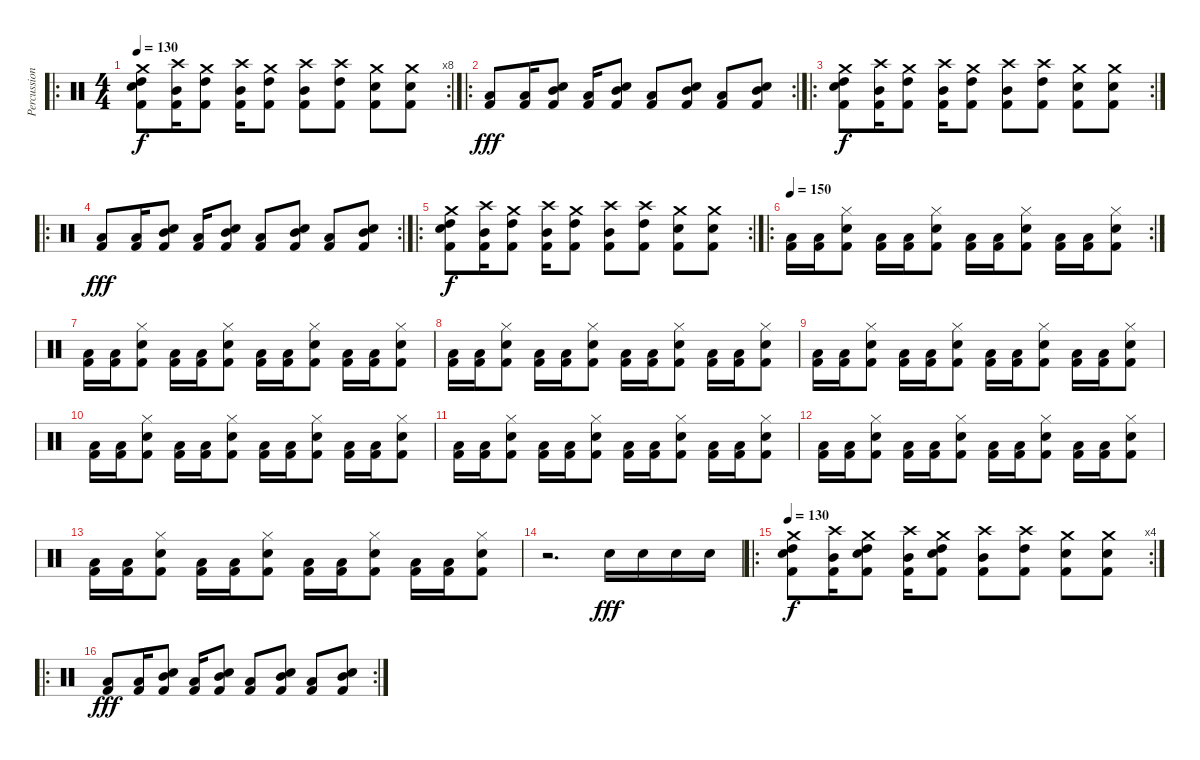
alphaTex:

\track ("Percussion" "Percussion") {instrument percussion}
\staff {score}
\articulation defaults
\ro
\rc 8
\ts (4 4)
\tempo 130
\clef neutral
\ks c
("Crash medium (hit)" "Snare (hit) 2" "Kick (hit) 2" "High Tom (hit)").8{dy f} ("Crash high (hit)" "Kick (hit) 2" "Mid Tom (hit)").16 ("Crash medium (hit)" "Kick (hit) 2" "High Tom (hit)").8 ("Crash high (hit)" "Kick (hit) 2" "Mid Tom (hit)").16 ("Crash medium (hit)" "Kick (hit) 2" "High Tom (hit)").8 ("Crash high (hit)" "Kick (hit) 2" "Mid Tom (hit)").8 ("Crash high (hit)" "Kick (hit) 2" "High Tom (hit)").8 ("Crash medium (hit)" "Snare (hit) 2" "Kick (hit) 2").8 ("Crash medium (hit)" "Snare (hit) 2" "Kick (hit) 2").8 |
\ro
\rc 2
("Kick (hit) 2" "Low Tom (hit)").8{dy fff volume 16} ("Kick (hit) 2" "Low Tom (hit)").16 ("Snare (hit) 2" "Kick (hit) 2" "Mid Tom (hit)").8 ("Kick (hit) 2" "Low Tom (hit)").16 ("Snare (hit) 2" "Kick (hit) 2" "Mid Tom (hit)").8 ("Kick (hit) 2" "Low Tom (hit)").8 ("Snare (hit) 2" "Kick (hit) 2" "Mid Tom (hit)").8 ("Kick (hit) 2" "Low Tom (hit)").8 ("Snare (hit) 2" "Kick (hit) 2" "Mid Tom (hit)").8 |
\ro
\rc 2
("Crash medium (hit)" "Snare (hit) 2" "Kick (hit) 2" "High Tom (hit)").8{dy f volume 10} ("Crash high (hit)" "Kick (hit) 2" "Mid Tom (hit)").16 ("Crash medium (hit)" "Kick (hit) 2" "High Tom (hit)").8 ("Crash high (hit)" "Kick (hit) 2" "Mid Tom (hit)").16 ("Crash medium (hit)" "Kick (hit) 2" "High Tom (hit)").8 ("Crash high (hit)" "Kick (hit) 2" "Mid Tom (hit)").8 ("Crash high (hit)" "Kick (hit) 2" "High Tom (hit)").8 ("Crash medium (hit)" "Snare (hit) 2" "Kick (hit) 2").8 ("Crash medium (hit)" "Snare (hit) 2" "Kick (hit) 2").8 |
\ro
\rc 2
("Kick (hit) 2" "Low Tom (hit)").8{dy fff volume 16} ("Kick (hit) 2" "Low Tom (hit)").16 ("Snare (hit) 2" "Kick (hit) 2" "Mid Tom (hit)").8 ("Kick (hit) 2" "Low Tom (hit)").16 ("Snare (hit) 2" "Kick (hit) 2" "Mid Tom (hit)").8 ("Kick (hit) 2" "Low Tom (hit)").8 ("Snare (hit) 2" "Kick (hit) 2" "Mid Tom (hit)").8 ("Kick (hit) 2" "Low Tom (hit)").8 ("Snare (hit) 2" "Kick (hit) 2" "Mid Tom (hit)").8 |
\ro
\rc 2
("Crash medium (hit)" "Snare (hit) 2" "Kick (hit) 2" "High Tom (hit)").8{dy f volume 10} ("Crash high (hit)" "Kick (hit) 2" "Mid Tom (hit)").16 ("Crash medium (hit)" "Kick (hit) 2" "High Tom (hit)").8 ("Crash high (hit)" "Kick (hit) 2" "Mid Tom (hit)").16 ("Crash medium (hit)" "Kick (hit) 2" "High Tom (hit)").8 ("Crash high (hit)" "Kick (hit) 2" "Mid Tom (hit)").8 ("Crash high (hit)" "Kick (hit) 2" "High Tom (hit)").8 ("Crash medium (hit)" "Snare (hit) 2" "Kick (hit) 2").8 ("Crash medium (hit)" "Snare (hit) 2" "Kick (hit) 2").8 |
\ro
\rc 2
\tempo 150
("Kick (hit) 2" "Low Tom (hit)").16{volume 13} ("Kick (hit) 2" "Low Tom (hit)").16 ("Hi-Hat (closed)" "Snare (hit) 2" "Kick (hit) 2").8 ("Kick (hit) 2" "Low Tom (hit)").16 ("Kick (hit) 2" "Low Tom (hit)").16 ("Hi-Hat (closed)" "Snare (hit) 2" "Kick (hit) 2").8 ("Kick (hit) 2" "Low Tom (hit)").16 ("Kick (hit) 2" "Low Tom (hit)").16 ("Hi-Hat (closed)" "Snare (hit) 2" "Kick (hit) 2").8 ("Kick (hit) 2" "Low Tom (hit)").16 ("Kick (hit) 2" "Low Tom (hit)").16 ("Hi-Hat (closed)" "Snare (hit) 2" "Kick (hit) 2").8 |
("Kick (hit) 2" "Low Tom (hit)").16{volume 13} ("Kick (hit) 2" "Low Tom (hit)").16 ("Hi-Hat (closed)" "Snare (hit) 2" "Kick (hit) 2").8 ("Kick (hit) 2" "Low Tom (hit)").16 ("Kick (hit) 2" "Low Tom (hit)").16 ("Hi-Hat (closed)" "Snare (hit) 2" "Kick (hit) 2").8 ("Kick (hit) 2" "Low Tom (hit)").16 ("Kick (hit) 2" "Low Tom (hit)").16 ("Hi-Hat (closed)" "Snare (hit) 2" "Kick (hit) 2").8 ("Kick (hit) 2" "Low Tom (hit)").16 ("Kick (hit) 2" "Low Tom (hit)").16 ("Hi-Hat (closed)" "Snare (hit) 2" "Kick (hit) 2").8 |
("Kick (hit) 2" "Low Tom (hit)").16{volume 13} ("Kick (hit) 2" "Low Tom (hit)").16 ("Hi-Hat (closed)" "Snare (hit) 2" "Kick (hit) 2").8 ("Kick (hit) 2" "Low Tom (hit)").16 ("Kick (hit) 2" "Low Tom (hit)").16 ("Hi-Hat (closed)" "Snare (hit) 2" "Kick (hit) 2").8 ("Kick (hit) 2" "Low Tom (hit)").16 ("Kick (hit) 2" "Low Tom (hit)").16 ("Hi-Hat (closed)" "Snare (hit) 2" "Kick (hit) 2").8 ("Kick (hit) 2" "Low Tom (hit)").16 ("Kick (hit) 2" "Low Tom (hit)").16 ("Hi-Hat (closed)" "Snare (hit) 2" "Kick (hit) 2").8 |
("Kick (hit) 2" "Low Tom (hit)").16{volume 13} ("Kick (hit) 2" "Low Tom (hit)").16 ("Hi-Hat (closed)" "Snare (hit) 2" "Kick (hit) 2").8 ("Kick (hit) 2" "Low Tom (hit)").16 ("Kick (hit) 2" "Low Tom (hit)").16 ("Hi-Hat (closed)" "Snare (hit) 2" "Kick (hit) 2").8 ("Kick (hit) 2" "Low Tom (hit)").16 ("Kick (hit) 2" "Low Tom (hit)").16 ("Hi-Hat (closed)" "Snare (hit) 2" "Kick (hit) 2").8 ("Kick (hit) 2" "Low Tom (hit)").16 ("Kick (hit) 2" "Low Tom (hit)").16 ("Hi-Hat (closed)" "Snare (hit) 2" "Kick (hit) 2").8 |
("Kick (hit) 2" "Low Tom (hit)").16{volume 13} ("Kick (hit) 2" "Low Tom (hit)").16 ("Hi-Hat (closed)" "Snare (hit) 2" "Kick (hit) 2").8 ("Kick (hit) 2" "Low Tom (hit)").16 ("Kick (hit) 2" "Low Tom (hit)").16 ("Hi-Hat (closed)" "Snare (hit) 2" "Kick (hit) 2").8 ("Kick (hit) 2" "Low Tom (hit)").16 ("Kick (hit) 2" "Low Tom (hit)").16 ("Hi-Hat (closed)" "Snare (hit) 2" "Kick (hit) 2").8 ("Kick (hit) 2" "Low Tom (hit)").16 ("Kick (hit) 2" "Low Tom (hit)").16 ("Hi-Hat (closed)" "Snare (hit) 2" "Kick (hit) 2").8 |
("Kick (hit) 2" "Low Tom (hit)").16{volume 13} ("Kick (hit) 2" "Low Tom (hit)").16 ("Hi-Hat (closed)" "Snare (hit) 2" "Kick (hit) 2").8 ("Kick (hit) 2" "Low Tom (hit)").16 ("Kick (hit) 2" "Low Tom (hit)").16 ("Hi-Hat (closed)" "Snare (hit) 2" "Kick (hit) 2").8 ("Kick (hit) 2" "Low Tom (hit)").16 ("Kick (hit) 2" "Low Tom (hit)").16 ("Hi-Hat (closed)" "Snare (hit) 2" "Kick (hit) 2").8 ("Kick (hit) 2" "Low Tom (hit)").16 ("Kick (hit) 2" "Low Tom (hit)").16 ("Hi-Hat (closed)" "Snare (hit) 2" "Kick (hit) 2").8 |
("Kick (hit) 2" "Low Tom (hit)").16{volume 13} ("Kick (hit) 2" "Low Tom (hit)").16 ("Hi-Hat (closed)" "Snare (hit) 2" "Kick (hit) 2").8 ("Kick (hit) 2" "Low Tom (hit)").16 ("Kick (hit) 2" "Low Tom (hit)").16 ("Hi-Hat (closed)" "Snare (hit) 2" "Kick (hit) 2").8 ("Kick (hit) 2" "Low Tom (hit)").16 ("Kick (hit) 2" "Low Tom (hit)").16 ("Hi-Hat (closed)" "Snare (hit) 2" "Kick (hit) 2").8 ("Kick (hit) 2" "Low Tom (hit)").16 ("Kick (hit) 2" "Low Tom (hit)").16 ("Hi-Hat (closed)" "Snare (hit) 2" "Kick (hit) 2").8 |
("Kick (hit) 2" "Low Tom (hit)").16{volume 13} ("Kick (hit) 2" "Low Tom (hit)").16 ("Hi-Hat (closed)" "Snare (hit) 2" "Kick (hit) 2").8 ("Kick (hit) 2" "Low Tom (hit)").16 ("Kick (hit) 2" "Low Tom (hit)").16 ("Hi-Hat (closed)" "Snare (hit) 2" "Kick (hit) 2").8 ("Kick (hit) 2" "Low Tom (hit)").16 ("Kick (hit) 2" "Low Tom (hit)").16 ("Hi-Hat (closed)" "Snare (hit) 2" "Kick (hit) 2").8 ("Kick (hit) 2" "Low Tom (hit)").16 ("Kick (hit) 2" "Low Tom (hit)").16 ("Hi-Hat (closed)" "Snare (hit) 2" "Kick (hit) 2").8 |
r.2{d} "Snare (hit) 2".16{dy fff} "Snare (hit) 2".16 "Snare (hit) 2".16 "Snare (hit) 2".16 |
\ro
\rc 4
\tempo 130
("Crash medium (hit)" "Snare (hit) 2" "Kick (hit) 2" "High Tom (hit)").8{dy f} ("Crash high (hit)" "Kick (hit) 2" "Mid Tom (hit)").16 ("Crash medium (hit)" "Snare (hit) 2" "Kick (hit) 2" "High Tom (hit)").8 ("Crash high (hit)" "Kick (hit) 2" "Mid Tom (hit)").16 ("Crash medium (hit)" "Snare (hit) 2" "Kick (hit) 2" "High Tom (hit)").8 ("Crash high (hit)" "Kick (hit) 2" "Mid Tom (hit)").8 ("Crash high (hit)" "Kick (hit) 2" "High Tom (hit)").8 ("Crash medium (hit)" "Snare (hit) 2" "Kick (hit) 2").8 ("Crash medium (hit)" "Snare (hit) 2" "Kick (hit) 2").8 |
\ro
\rc 2
("Kick (hit) 2" "Low Tom (hit)").8{dy fff volume 16} ("Kick (hit) 2" "Low Tom (hit)").16 ("Snare (hit) 2" "Kick (hit) 2" "Mid Tom (hit)").8 ("Kick (hit) 2" "Low Tom (hit)").16 ("Snare (hit) 2" "Kick (hit) 2" "Mid Tom (hit)").8 ("Kick (hit) 2" "Low Tom (hit)").8 ("Snare (hit) 2" "Kick (hit) 2" "Mid Tom (hit)").8 ("Kick (hit) 2" "Low Tom (hit)").8 ("Snare (hit) 2" "Kick (hit) 2" "Mid Tom (hit)").8
